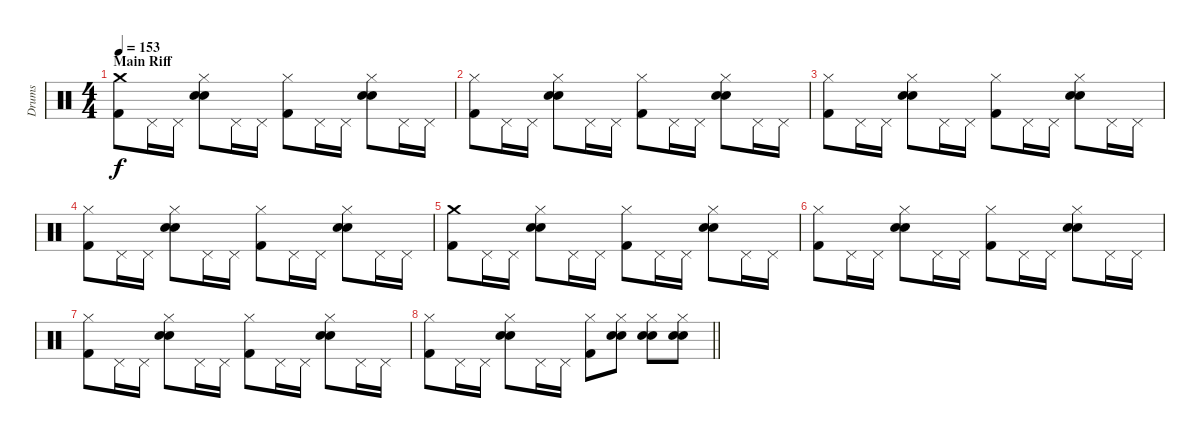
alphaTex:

\track ("Drums" "Drums") {instrument percussion}
\staff {score}
\articulation defaults
\ts (4 4)
\section ("" "Main Riff")
\tempo 153
\clef neutral
\ks c
("Crash medium (hit)" "Kick (hit) 2").8{dy f} "Pedal Hi-Hat (hit)".16 "Pedal Hi-Hat (hit)".16 ("Hi-Hat (closed)" "Electric Snare (hit)" "Snare (hit) 2").8 "Pedal Hi-Hat (hit)".16 "Pedal Hi-Hat (hit)".16 ("Hi-Hat (closed)" "Kick (hit) 2").8 "Pedal Hi-Hat (hit)".16 "Pedal Hi-Hat (hit)".16 ("Hi-Hat (closed)" "Electric Snare (hit)" "Snare (hit) 2").8 "Pedal Hi-Hat (hit)".16 "Pedal Hi-Hat (hit)".16 |
("Hi-Hat (closed)" "Kick (hit) 2").8 "Pedal Hi-Hat (hit)".16 "Pedal Hi-Hat (hit)".16 ("Hi-Hat (closed)" "Electric Snare (hit)" "Snare (hit) 2").8 "Pedal Hi-Hat (hit)".16 "Pedal Hi-Hat (hit)".16 ("Hi-Hat (closed)" "Kick (hit) 2").8 "Pedal Hi-Hat (hit)".16 "Pedal Hi-Hat (hit)".16 ("Hi-Hat (closed)" "Electric Snare (hit)" "Snare (hit) 2").8 "Pedal Hi-Hat (hit)".16 "Pedal Hi-Hat (hit)".16 |
("Hi-Hat (closed)" "Kick (hit) 2").8 "Pedal Hi-Hat (hit)".16 "Pedal Hi-Hat (hit)".16 ("Hi-Hat (closed)" "Electric Snare (hit)" "Snare (hit) 2").8 "Pedal Hi-Hat (hit)".16 "Pedal Hi-Hat (hit)".16 ("Hi-Hat (closed)" "Kick (hit) 2").8 "Pedal Hi-Hat (hit)".16 "Pedal Hi-Hat (hit)".16 ("Hi-Hat (closed)" "Electric Snare (hit)" "Snare (hit) 2").8 "Pedal Hi-Hat (hit)".16 "Pedal Hi-Hat (hit)".16 |
("Hi-Hat (closed)" "Kick (hit) 2").8 "Pedal Hi-Hat (hit)".16 "Pedal Hi-Hat (hit)".16 ("Hi-Hat (closed)" "Electric Snare (hit)" "Snare (hit) 2").8 "Pedal Hi-Hat (hit)".16 "Pedal Hi-Hat (hit)".16 ("Hi-Hat (closed)" "Kick (hit) 2").8 "Pedal Hi-Hat (hit)".16 "Pedal Hi-Hat (hit)".16 ("Hi-Hat (closed)" "Electric Snare (hit)" "Snare (hit) 2").8 "Pedal Hi-Hat (hit)".16 "Pedal Hi-Hat (hit)".16 |
("Crash medium (hit)" "Kick (hit) 2").8 "Pedal Hi-Hat (hit)".16 "Pedal Hi-Hat (hit)".16 ("Hi-Hat (closed)" "Electric Snare (hit)" "Snare (hit) 2").8 "Pedal Hi-Hat (hit)".16 "Pedal Hi-Hat (hit)".16 ("Hi-Hat (closed)" "Kick (hit) 2").8 "Pedal Hi-Hat (hit)".16 "Pedal Hi-Hat (hit)".16 ("Hi-Hat (closed)" "Electric Snare (hit)" "Snare (hit) 2").8 "Pedal Hi-Hat (hit)".16 "Pedal Hi-Hat (hit)".16 |
("Hi-Hat (closed)" "Kick (hit) 2").8 "Pedal Hi-Hat (hit)".16 "Pedal Hi-Hat (hit)".16 ("Hi-Hat (closed)" "Electric Snare (hit)" "Snare (hit) 2").8 "Pedal Hi-Hat (hit)".16 "Pedal Hi-Hat (hit)".16 ("Hi-Hat (closed)" "Kick (hit) 2").8 "Pedal Hi-Hat (hit)".16 "Pedal Hi-Hat (hit)".16 ("Hi-Hat (closed)" "Electric Snare (hit)" "Snare (hit) 2").8 "Pedal Hi-Hat (hit)".16 "Pedal Hi-Hat (hit)".16 |
("Hi-Hat (closed)" "Kick (hit) 2").8 "Pedal Hi-Hat (hit)".16 "Pedal Hi-Hat (hit)".16 ("Hi-Hat (closed)" "Electric Snare (hit)" "Snare (hit) 2").8 "Pedal Hi-Hat (hit)".16 "Pedal Hi-Hat (hit)".16 ("Hi-Hat (closed)" "Kick (hit) 2").8 "Pedal Hi-Hat (hit)".16 "Pedal Hi-Hat (hit)".16 ("Hi-Hat (closed)" "Electric Snare (hit)" "Snare (hit) 2").8 "Pedal Hi-Hat (hit)".16 "Pedal Hi-Hat (hit)".16 |
\barLineRight lightlight
("Hi-Hat (closed)" "Kick (hit) 2").8 "Pedal Hi-Hat (hit)".16 "Pedal Hi-Hat (hit)".16 ("Hi-Hat (closed)" "Electric Snare (hit)" "Snare (hit) 2").8 "Pedal Hi-Hat (hit)".16 "Pedal Hi-Hat (hit)".16 ("Hi-Hat (closed)" "Kick (hit) 2").8 ("Hi-Hat (closed)" "Electric Snare (hit)" "Snare (hit) 2").8 ("Hi-Hat (closed)" "Electric Snare (hit)" "Snare (hit) 2").8 ("Hi-Hat (closed)" "Electric Snare (hit)" "Snare (hit) 2").8
